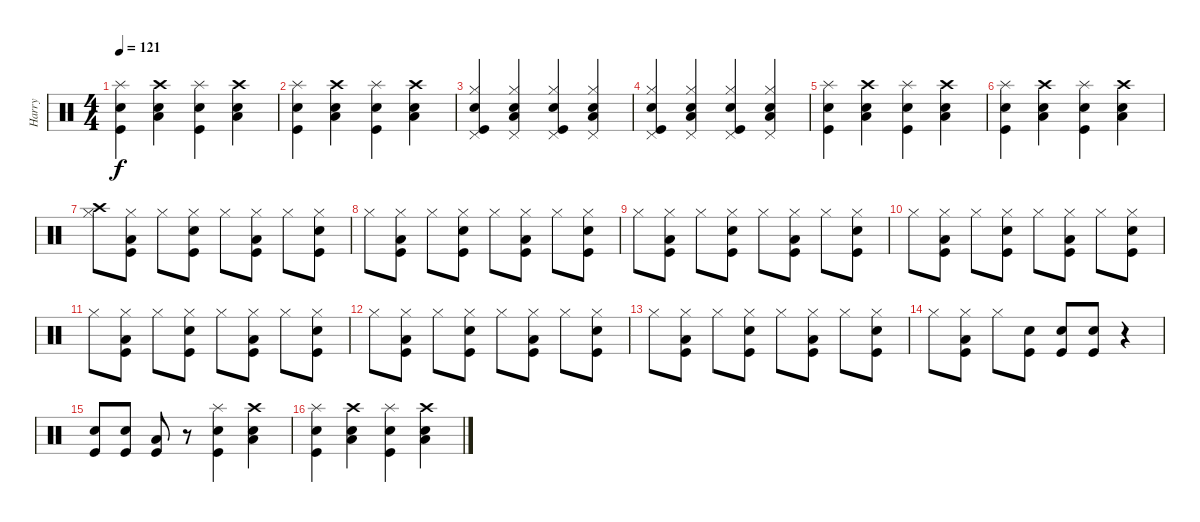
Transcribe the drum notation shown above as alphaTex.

\track ("Harry" "Harry") {instrument percussion}
\staff {score}
\articulation defaults
\ts (4 4)
\tempo 121
\clef neutral
\ks c
("Splash (hit)" "Snare (hit) 2" "Kick (hit)").4{dy f} ("Crash high (hit)" "Snare (hit) 2" "Low Tom (hit)").4 ("Splash (hit)" "Snare (hit) 2" "Kick (hit)").4 ("Crash high (hit)" "Snare (hit) 2" "Low Tom (hit)").4 |
("Splash (hit)" "Snare (hit) 2" "Kick (hit)").4 ("Crash high (hit)" "Snare (hit) 2" "Low Tom (hit)").4 ("Splash (hit)" "Snare (hit) 2" "Kick (hit)").4 ("Crash high (hit)" "Snare (hit) 2" "Low Tom (hit)").4 |
("Hi-Hat (closed)" "Pedal Hi-Hat (hit)" "Snare (hit) 2" "Kick (hit)").4 ("Hi-Hat (closed)" "Pedal Hi-Hat (hit)" "Snare (hit) 2" "Low Tom (hit)").4 ("Hi-Hat (closed)" "Pedal Hi-Hat (hit)" "Snare (hit) 2" "Kick (hit)").4 ("Hi-Hat (closed)" "Pedal Hi-Hat (hit)" "Snare (hit) 2" "Low Tom (hit)").4 |
("Hi-Hat (closed)" "Pedal Hi-Hat (hit)" "Snare (hit) 2" "Kick (hit)").4 ("Hi-Hat (closed)" "Pedal Hi-Hat (hit)" "Snare (hit) 2" "Low Tom (hit)").4 ("Hi-Hat (closed)" "Pedal Hi-Hat (hit)" "Snare (hit) 2" "Kick (hit)").4 ("Hi-Hat (closed)" "Pedal Hi-Hat (hit)" "Snare (hit) 2" "Low Tom (hit)").4 |
("Splash (hit)" "Snare (hit) 2" "Kick (hit)").4 ("Crash high (hit)" "Snare (hit) 2" "Low Tom (hit)").4 ("Splash (hit)" "Snare (hit) 2" "Kick (hit)").4 ("Crash high (hit)" "Snare (hit) 2" "Low Tom (hit)").4 |
("Splash (hit)" "Snare (hit) 2" "Kick (hit)").4 ("Crash high (hit)" "Snare (hit) 2" "Low Tom (hit)").4 ("Splash (hit)" "Snare (hit) 2" "Kick (hit)").4 ("Crash high (hit)" "Snare (hit) 2" "Low Tom (hit)").4 |
("Hi-Hat (closed)" "Crash high (hit)").8 ("Hi-Hat (closed)" "Low Floor Tom (hit)" "Kick (hit)").8 "Hi-Hat (closed)".8 ("Hi-Hat (closed)" "Snare (hit) 2" "Kick (hit)").8 "Hi-Hat (closed)".8 ("Hi-Hat (closed)" "Low Floor Tom (hit)" "Kick (hit)").8 "Hi-Hat (closed)".8 ("Hi-Hat (closed)" "Snare (hit) 2" "Kick (hit)").8 |
"Hi-Hat (closed)".8 ("Hi-Hat (closed)" "Low Floor Tom (hit)" "Kick (hit)").8 "Hi-Hat (closed)".8 ("Hi-Hat (closed)" "Snare (hit) 2" "Kick (hit)").8 "Hi-Hat (closed)".8 ("Hi-Hat (closed)" "Low Floor Tom (hit)" "Kick (hit)").8 "Hi-Hat (closed)".8 ("Hi-Hat (closed)" "Snare (hit) 2" "Kick (hit)").8 |
"Hi-Hat (closed)".8 ("Hi-Hat (closed)" "Low Floor Tom (hit)" "Kick (hit)").8 "Hi-Hat (closed)".8 ("Hi-Hat (closed)" "Snare (hit) 2" "Kick (hit)").8 "Hi-Hat (closed)".8 ("Hi-Hat (closed)" "Low Floor Tom (hit)" "Kick (hit)").8 "Hi-Hat (closed)".8 ("Hi-Hat (closed)" "Snare (hit) 2" "Kick (hit)").8 |
"Hi-Hat (closed)".8 ("Hi-Hat (closed)" "Low Floor Tom (hit)" "Kick (hit)").8 "Hi-Hat (closed)".8 ("Hi-Hat (closed)" "Snare (hit) 2" "Kick (hit)").8 "Hi-Hat (closed)".8 ("Hi-Hat (closed)" "Low Floor Tom (hit)" "Kick (hit)").8 "Hi-Hat (closed)".8 ("Hi-Hat (closed)" "Snare (hit) 2" "Kick (hit)").8 |
"Hi-Hat (closed)".8 ("Hi-Hat (closed)" "Low Floor Tom (hit)" "Kick (hit)").8 "Hi-Hat (closed)".8 ("Hi-Hat (closed)" "Snare (hit) 2" "Kick (hit)").8 "Hi-Hat (closed)".8 ("Hi-Hat (closed)" "Low Floor Tom (hit)" "Kick (hit)").8 "Hi-Hat (closed)".8 ("Hi-Hat (closed)" "Snare (hit) 2" "Kick (hit)").8 |
"Hi-Hat (closed)".8 ("Hi-Hat (closed)" "Low Floor Tom (hit)" "Kick (hit)").8 "Hi-Hat (closed)".8 ("Hi-Hat (closed)" "Snare (hit) 2" "Kick (hit)").8 "Hi-Hat (closed)".8 ("Hi-Hat (closed)" "Low Floor Tom (hit)" "Kick (hit)").8 "Hi-Hat (closed)".8 ("Hi-Hat (closed)" "Snare (hit) 2" "Kick (hit)").8 |
"Hi-Hat (closed)".8 ("Hi-Hat (closed)" "Low Floor Tom (hit)" "Kick (hit)").8 "Hi-Hat (closed)".8 ("Hi-Hat (closed)" "Snare (hit) 2" "Kick (hit)").8 "Hi-Hat (closed)".8 ("Hi-Hat (closed)" "Low Floor Tom (hit)" "Kick (hit)").8 "Hi-Hat (closed)".8 ("Hi-Hat (closed)" "Snare (hit) 2" "Kick (hit)").8 |
"Hi-Hat (closed)".8 ("Hi-Hat (closed)" "Low Floor Tom (hit)" "Kick (hit)").8 "Hi-Hat (closed)".8 ("Kick (hit)" "Snare (hit) 2").8 ("Kick (hit)" "Snare (hit) 2").8 ("Kick (hit)" "Snare (hit) 2").8 r.4 |
("Kick (hit)" "Snare (hit) 2").8 ("Kick (hit)" "Snare (hit) 2").8 ("Low Floor Tom (hit)" "Kick (hit)").8 r.8 ("Splash (hit)" "Snare (hit) 2" "Kick (hit)").4 ("Crash high (hit)" "Snare (hit) 2" "Low Tom (hit)").4 |
("Splash (hit)" "Snare (hit) 2" "Kick (hit)").4 ("Crash high (hit)" "Snare (hit) 2" "Low Tom (hit)").4 ("Splash (hit)" "Snare (hit) 2" "Kick (hit)").4 ("Crash high (hit)" "Snare (hit) 2" "Low Tom (hit)").4
